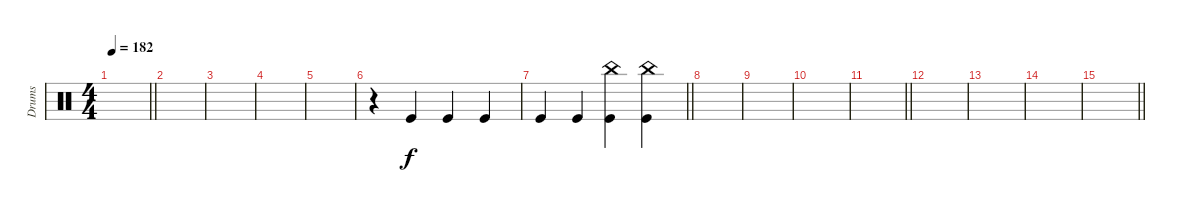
\track ("Drums" "Drums") {instrument percussion}
\staff
\articulation defaults
\ts (4 4)
\tempo 182
\clef neutral
\barLineRight lightlight
\ks c
|
|
|
|
|
r.4 "Kick (hit)".4 "Kick (hit)".4 "Kick (hit)".4 |
\barLineRight lightlight "Kick (hit)".4 "Kick (hit)".4
("China (hit)" "Kick (hit)").4 ("China (hit)" "Kick (hit)").4 |
\section ("" "")
|
|
|
\barLineRight lightlight
|
|
|
|
\barLineRight lightlight
